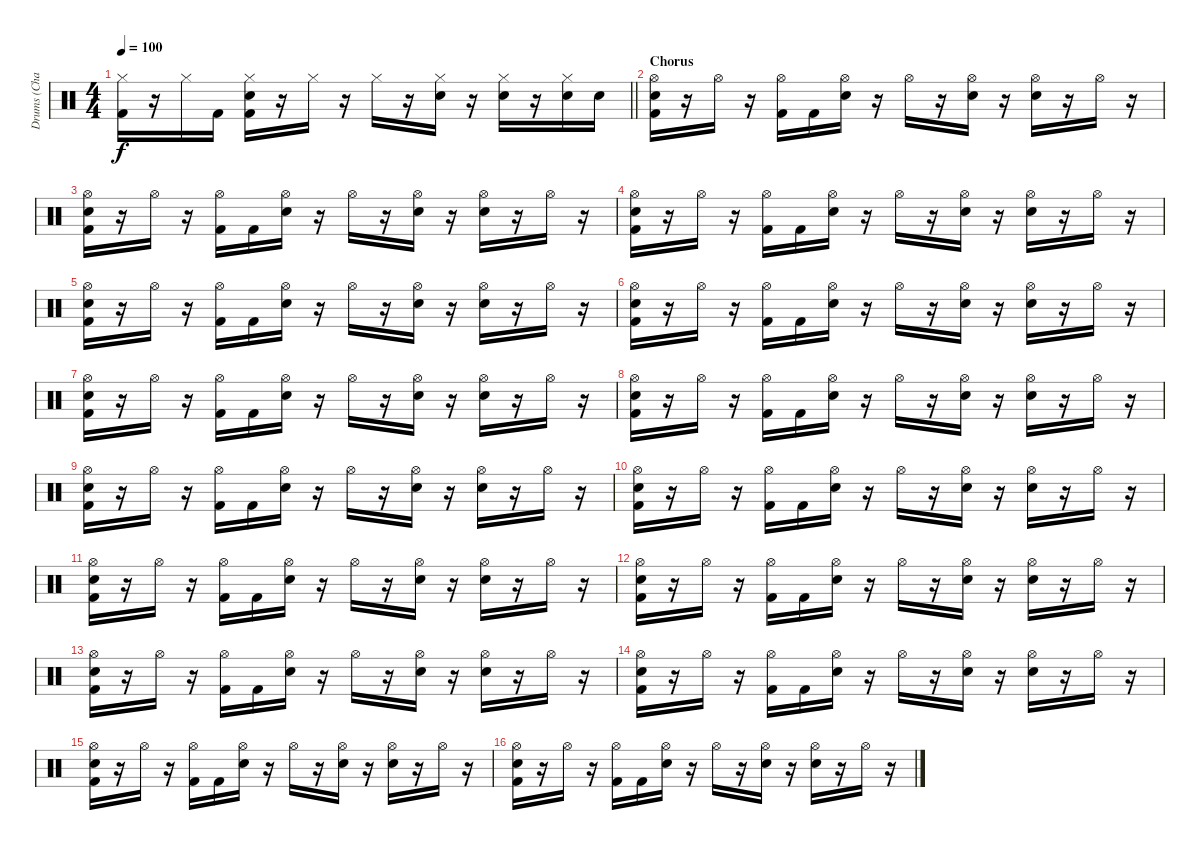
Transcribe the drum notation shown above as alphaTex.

\track ("Drums (Chad Smith)" "Drums (Cha") {instrument percussion}
\staff {score}
\articulation defaults
\ts (4 4)
\tempo 100
\clef neutral
\barLineRight lightlight
\ks c
("Hi-Hat (closed)" "Kick (hit) 2").16{dy f} r.16 "Hi-Hat (closed)".16 "Kick (hit) 2".16 ("Hi-Hat (closed)" "Electric Snare (hit)" "Kick (hit) 2").16 r.16 "Hi-Hat (closed)".16 r.16 "Hi-Hat (closed)".16 r.16 ("Hi-Hat (closed)" "Electric Snare (hit)").16 r.16 ("Hi-Hat (closed)" "Electric Snare (hit)").16 r.16 ("Hi-Hat (closed)" "Electric Snare (hit)").16 "Electric Snare (hit)".16 |
\section ("" "Chorus")
("Hi-Hat (open)" "Electric Snare (hit)" "Kick (hit) 2").16 r.16 "Hi-Hat (open)".16 r.16 ("Hi-Hat (open)" "Kick (hit) 2").16 "Kick (hit) 2".16 ("Hi-Hat (open)" "Electric Snare (hit)").16 r.16 "Hi-Hat (open)".16 r.16 ("Hi-Hat (open)" "Electric Snare (hit)").16 r.16 ("Hi-Hat (open)" "Electric Snare (hit)").16 r.16 "Hi-Hat (open)".16 r.16 |
("Hi-Hat (open)" "Electric Snare (hit)" "Kick (hit) 2").16 r.16 "Hi-Hat (open)".16 r.16 ("Hi-Hat (open)" "Kick (hit) 2").16 "Kick (hit) 2".16 ("Hi-Hat (open)" "Electric Snare (hit)").16 r.16 "Hi-Hat (open)".16 r.16 ("Hi-Hat (open)" "Electric Snare (hit)").16 r.16 ("Hi-Hat (open)" "Electric Snare (hit)").16 r.16 "Hi-Hat (open)".16 r.16 |
("Hi-Hat (open)" "Electric Snare (hit)" "Kick (hit) 2").16 r.16 "Hi-Hat (open)".16 r.16 ("Hi-Hat (open)" "Kick (hit) 2").16 "Kick (hit) 2".16 ("Hi-Hat (open)" "Electric Snare (hit)").16 r.16 "Hi-Hat (open)".16 r.16 ("Hi-Hat (open)" "Electric Snare (hit)").16 r.16 ("Hi-Hat (open)" "Electric Snare (hit)").16 r.16 "Hi-Hat (open)".16 r.16 |
("Hi-Hat (open)" "Electric Snare (hit)" "Kick (hit) 2").16 r.16 "Hi-Hat (open)".16 r.16 ("Hi-Hat (open)" "Kick (hit) 2").16 "Kick (hit) 2".16 ("Hi-Hat (open)" "Electric Snare (hit)").16 r.16 "Hi-Hat (open)".16 r.16 ("Hi-Hat (open)" "Electric Snare (hit)").16 r.16 ("Hi-Hat (open)" "Electric Snare (hit)").16 r.16 "Hi-Hat (open)".16 r.16 |
("Hi-Hat (open)" "Electric Snare (hit)" "Kick (hit) 2").16 r.16 "Hi-Hat (open)".16 r.16 ("Hi-Hat (open)" "Kick (hit) 2").16 "Kick (hit) 2".16 ("Hi-Hat (open)" "Electric Snare (hit)").16 r.16 "Hi-Hat (open)".16 r.16 ("Hi-Hat (open)" "Electric Snare (hit)").16 r.16 ("Hi-Hat (open)" "Electric Snare (hit)").16 r.16 "Hi-Hat (open)".16 r.16 |
("Hi-Hat (open)" "Electric Snare (hit)" "Kick (hit) 2").16 r.16 "Hi-Hat (open)".16 r.16 ("Hi-Hat (open)" "Kick (hit) 2").16 "Kick (hit) 2".16 ("Hi-Hat (open)" "Electric Snare (hit)").16 r.16 "Hi-Hat (open)".16 r.16 ("Hi-Hat (open)" "Electric Snare (hit)").16 r.16 ("Hi-Hat (open)" "Electric Snare (hit)").16 r.16 "Hi-Hat (open)".16 r.16 |
("Hi-Hat (open)" "Electric Snare (hit)" "Kick (hit) 2").16 r.16 "Hi-Hat (open)".16 r.16 ("Hi-Hat (open)" "Kick (hit) 2").16 "Kick (hit) 2".16 ("Hi-Hat (open)" "Electric Snare (hit)").16 r.16 "Hi-Hat (open)".16 r.16 ("Hi-Hat (open)" "Electric Snare (hit)").16 r.16 ("Hi-Hat (open)" "Electric Snare (hit)").16 r.16 "Hi-Hat (open)".16 r.16 |
("Hi-Hat (open)" "Electric Snare (hit)" "Kick (hit) 2").16 r.16 "Hi-Hat (open)".16 r.16 ("Hi-Hat (open)" "Kick (hit) 2").16 "Kick (hit) 2".16 ("Hi-Hat (open)" "Electric Snare (hit)").16 r.16 "Hi-Hat (open)".16 r.16 ("Hi-Hat (open)" "Electric Snare (hit)").16 r.16 ("Hi-Hat (open)" "Electric Snare (hit)").16 r.16 "Hi-Hat (open)".16 r.16 |
("Hi-Hat (open)" "Electric Snare (hit)" "Kick (hit) 2").16 r.16 "Hi-Hat (open)".16 r.16 ("Hi-Hat (open)" "Kick (hit) 2").16 "Kick (hit) 2".16 ("Hi-Hat (open)" "Electric Snare (hit)").16 r.16 "Hi-Hat (open)".16 r.16 ("Hi-Hat (open)" "Electric Snare (hit)").16 r.16 ("Hi-Hat (open)" "Electric Snare (hit)").16 r.16 "Hi-Hat (open)".16 r.16 |
("Hi-Hat (open)" "Electric Snare (hit)" "Kick (hit) 2").16 r.16 "Hi-Hat (open)".16 r.16 ("Hi-Hat (open)" "Kick (hit) 2").16 "Kick (hit) 2".16 ("Hi-Hat (open)" "Electric Snare (hit)").16 r.16 "Hi-Hat (open)".16 r.16 ("Hi-Hat (open)" "Electric Snare (hit)").16 r.16 ("Hi-Hat (open)" "Electric Snare (hit)").16 r.16 "Hi-Hat (open)".16 r.16 |
("Hi-Hat (open)" "Electric Snare (hit)" "Kick (hit) 2").16 r.16 "Hi-Hat (open)".16 r.16 ("Hi-Hat (open)" "Kick (hit) 2").16 "Kick (hit) 2".16 ("Hi-Hat (open)" "Electric Snare (hit)").16 r.16 "Hi-Hat (open)".16 r.16 ("Hi-Hat (open)" "Electric Snare (hit)").16 r.16 ("Hi-Hat (open)" "Electric Snare (hit)").16 r.16 "Hi-Hat (open)".16 r.16 |
("Hi-Hat (open)" "Electric Snare (hit)" "Kick (hit) 2").16 r.16 "Hi-Hat (open)".16 r.16 ("Hi-Hat (open)" "Kick (hit) 2").16 "Kick (hit) 2".16 ("Hi-Hat (open)" "Electric Snare (hit)").16 r.16 "Hi-Hat (open)".16 r.16 ("Hi-Hat (open)" "Electric Snare (hit)").16 r.16 ("Hi-Hat (open)" "Electric Snare (hit)").16 r.16 "Hi-Hat (open)".16 r.16 |
("Hi-Hat (open)" "Electric Snare (hit)" "Kick (hit) 2").16 r.16 "Hi-Hat (open)".16 r.16 ("Hi-Hat (open)" "Kick (hit) 2").16 "Kick (hit) 2".16 ("Hi-Hat (open)" "Electric Snare (hit)").16 r.16 "Hi-Hat (open)".16 r.16 ("Hi-Hat (open)" "Electric Snare (hit)").16 r.16 ("Hi-Hat (open)" "Electric Snare (hit)").16 r.16 "Hi-Hat (open)".16 r.16 |
("Hi-Hat (open)" "Electric Snare (hit)" "Kick (hit) 2").16 r.16 "Hi-Hat (open)".16 r.16 ("Hi-Hat (open)" "Kick (hit) 2").16 "Kick (hit) 2".16 ("Hi-Hat (open)" "Electric Snare (hit)").16 r.16 "Hi-Hat (open)".16 r.16 ("Hi-Hat (open)" "Electric Snare (hit)").16 r.16 ("Hi-Hat (open)" "Electric Snare (hit)").16 r.16 "Hi-Hat (open)".16 r.16 |
("Hi-Hat (open)" "Electric Snare (hit)" "Kick (hit) 2").16 r.16 "Hi-Hat (open)".16 r.16 ("Hi-Hat (open)" "Kick (hit) 2").16 "Kick (hit) 2".16 ("Hi-Hat (open)" "Electric Snare (hit)").16 r.16 "Hi-Hat (open)".16 r.16 ("Hi-Hat (open)" "Electric Snare (hit)").16 r.16 ("Hi-Hat (open)" "Electric Snare (hit)").16 r.16 "Hi-Hat (open)".16 r.16
